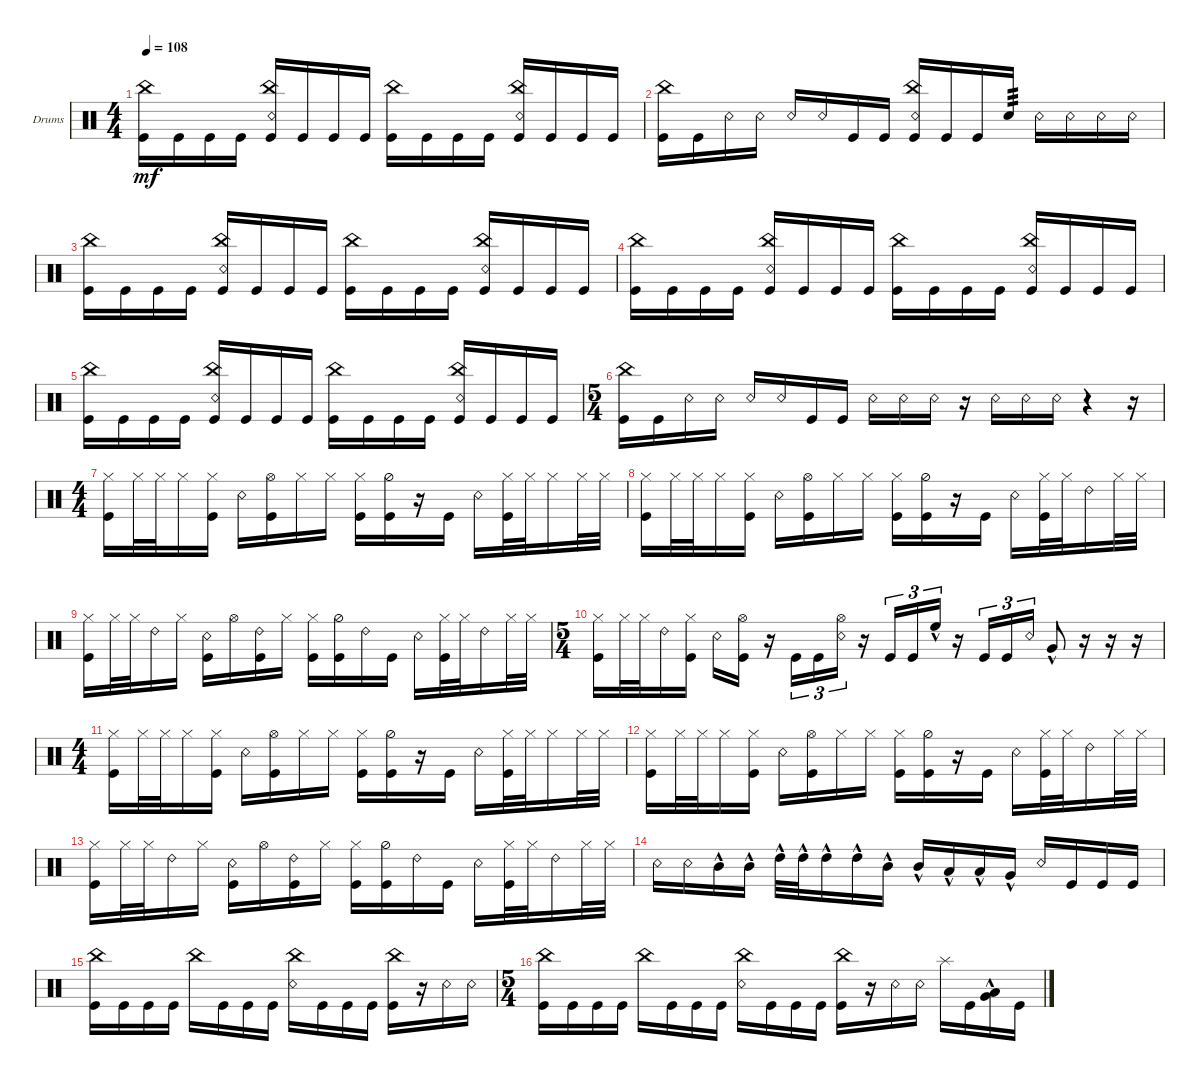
\defaultSystemsLayout 4
\bracketExtendMode groupsimilarinstruments
\firstSystemTrackNameOrientation horizontal
\otherSystemsTrackNameOrientation horizontal
\track ("Drumkit" "Drums") {instrument percussion}
\staff {score}
\articulation defaults
\ts (4 4)
\tempo 108
\clef neutral
\ks c
("Kick (hit)" "China (hit)").16{dy mf} "Kick (hit)".16 "Kick (hit)".16 "Kick (hit)".16 ("Kick (hit)" "China (hit)" "Snare (rim shot)").16 "Kick (hit)".16 "Kick (hit)".16 "Kick (hit)".16 ("Kick (hit)" "China (hit)").16 "Kick (hit)".16 "Kick (hit)".16 "Kick (hit)".16 ("Kick (hit)" "China (hit)" "Snare (rim shot)").16 "Kick (hit)".16 "Kick (hit)".16 "Kick (hit)".16 |
("Kick (hit)" "China (hit)").16 "Kick (hit)".16 "Snare (rim shot)".16 "Snare (rim shot)".16 "Snare (rim shot)".16 "Snare (rim shot)".16 "Kick (hit)".16 "Kick (hit)".16 ("Kick (hit)" "Snare (rim shot)" "China (hit)").16 "Kick (hit)".16 "Kick (hit)".16 "Snare (hit) 2".16{tp 3} "Snare (rim shot)".16 "Snare (rim shot)".16 "Snare (rim shot)".16 "Snare (rim shot)".16 |
("Kick (hit)" "China (hit)").16 "Kick (hit)".16 "Kick (hit)".16 "Kick (hit)".16 ("Kick (hit)" "China (hit)" "Snare (rim shot)").16 "Kick (hit)".16 "Kick (hit)".16 "Kick (hit)".16 ("Kick (hit)" "China (hit)").16 "Kick (hit)".16 "Kick (hit)".16 "Kick (hit)".16 ("Kick (hit)" "China (hit)" "Snare (rim shot)").16 "Kick (hit)".16 "Kick (hit)".16 "Kick (hit)".16 |
("Kick (hit)" "China (hit)").16 "Kick (hit)".16 "Kick (hit)".16 "Kick (hit)".16 ("Snare (rim shot)" "China (hit)" "Kick (hit)").16 "Kick (hit)".16 "Kick (hit)".16 "Kick (hit)".16 ("Kick (hit)" "China (hit)").16 "Kick (hit)".16 "Kick (hit)".16 "Kick (hit)".16 ("Snare (rim shot)" "Kick (hit)" "China (hit)").16 "Kick (hit)".16 "Kick (hit)".16 "Kick (hit)".16 |
("Kick (hit)" "China (hit)").16 "Kick (hit)".16 "Kick (hit)".16 "Kick (hit)".16 ("Kick (hit)" "China (hit)" "Snare (rim shot)").16 "Kick (hit)".16 "Kick (hit)".16 "Kick (hit)".16 ("Kick (hit)" "China (hit)").16 "Kick (hit)".16 "Kick (hit)".16 "Kick (hit)".16 ("Kick (hit)" "China (hit)" "Snare (rim shot)").16 "Kick (hit)".16 "Kick (hit)".16 "Kick (hit)".16 |
\ts (5 4)
("Kick (hit)" "China (hit)").16 "Kick (hit)".16 "Snare (rim shot)".16 "Snare (rim shot)".16 "Snare (rim shot)".16 "Snare (rim shot)".16 "Kick (hit)".16 "Kick (hit)".16 "Snare (rim shot)".16 "Snare (rim shot)".16 "Snare (rim shot)".16 r.16 "Snare (rim shot)".16 "Snare (rim shot)".16 "Snare (rim shot)".16 r.4 r.16 |
\ts (4 4)
("Hi-Hat (closed)" "Kick (hit)").16 "Hi-Hat (closed)".32 "Hi-Hat (closed)".32 "Hi-Hat (closed)".16 ("Kick (hit)" "Hi-Hat (closed)").16 "Snare (rim shot)".16 ("Hi-Hat (open)" "Kick (hit)").16 "Hi-Hat (closed)".16 "Hi-Hat (closed)".16 ("Hi-Hat (closed)" "Kick (hit)").16 ("Kick (hit)" "Hi-Hat (half)").16 r.16 "Kick (hit)".16 "Snare (rim shot)".16 ("Kick (hit)" "Hi-Hat (closed)").32 "Hi-Hat (closed)".32 "Hi-Hat (closed)".16 "Hi-Hat (closed)".32 "Hi-Hat (closed)".32 |
("Hi-Hat (closed)" "Kick (hit)").16 "Hi-Hat (closed)".32 "Hi-Hat (closed)".32 "Hi-Hat (closed)".16 ("Kick (hit)" "Hi-Hat (closed)").16 "Snare (rim shot)".16 ("Hi-Hat (open)" "Kick (hit)").16 "Hi-Hat (closed)".16 "Hi-Hat (closed)".16 ("Hi-Hat (closed)" "Kick (hit)").16 ("Kick (hit)" "Hi-Hat (half)").16 r.16 "Kick (hit)".16 "Snare (rim shot)".16 ("Kick (hit)" "Hi-Hat (closed)").32 "Hi-Hat (closed)".32 "Ride (bell) 2".16 "Hi-Hat (closed)".32 "Hi-Hat (closed)".32 |
("Hi-Hat (closed)" "Kick (hit)").16 "Hi-Hat (closed)".32 "Hi-Hat (closed)".32 "Ride (bell) 2".16 "Hi-Hat (closed)".16 ("Snare (rim shot)" "Kick (hit)").16 "Hi-Hat (open)".16 ("Ride (bell) 2" "Kick (hit)").16 "Hi-Hat (closed)".16 ("Hi-Hat (closed)" "Kick (hit)").16 ("Kick (hit)" "Hi-Hat (half)").16 "Ride (bell) 2".16 "Kick (hit)".16 "Snare (rim shot)".16 ("Kick (hit)" "Hi-Hat (closed)").32 "Hi-Hat (closed)".32 "Ride (bell) 2".16 "Hi-Hat (closed)".32 "Hi-Hat (closed)".32 |
\ts (5 4)
("Hi-Hat (closed)" "Kick (hit)").16 "Hi-Hat (closed)".32 "Hi-Hat (closed)".32 "Ride (bell) 2".16 ("Kick (hit)" "Hi-Hat (closed)").16 "Snare (rim shot)".16 ("Hi-Hat (open)" "Kick (hit)").16 r.16 "Kick (hit)".16{tu (3 2)} "Kick (hit)".16{tu (3 2)} ("Snare (rim shot)" "Hi-Hat (open)").16{tu (3 2)} r.16 "Kick (hit)".16{tu (3 2)} "Kick (hit)".16{tu (3 2)} "High Floor Tom (hit)"{hac}.16{tu (3 2)} r.16 "Kick (hit)".16{tu (3 2)} "Kick (hit)".16{tu (3 2)} "Snare (rim shot)".16{tu (3 2)} "Very Low Tom (hit)"{hac}.8 r.16 r.16 r.16 |
\ts (4 4)
("Hi-Hat (closed)" "Kick (hit)").16 "Hi-Hat (closed)".32 "Hi-Hat (closed)".32 "Hi-Hat (closed)".16 ("Kick (hit)" "Hi-Hat (closed)").16 "Snare (rim shot)".16 ("Hi-Hat (open)" "Kick (hit)").16 "Hi-Hat (closed)".16 "Hi-Hat (closed)".16 ("Hi-Hat (closed)" "Kick (hit)").16 ("Kick (hit)" "Hi-Hat (half)").16 r.16 "Kick (hit)".16 "Snare (rim shot)".16 ("Kick (hit)" "Hi-Hat (closed)").32 "Hi-Hat (closed)".32 "Hi-Hat (closed)".16 "Hi-Hat (closed)".32 "Hi-Hat (closed)".32 |
("Hi-Hat (closed)" "Kick (hit)").16 "Hi-Hat (closed)".32 "Hi-Hat (closed)".32 "Hi-Hat (closed)".16 ("Kick (hit)" "Hi-Hat (closed)").16 "Snare (rim shot)".16 ("Hi-Hat (open)" "Kick (hit)").16 "Hi-Hat (closed)".16 "Hi-Hat (closed)".16 ("Hi-Hat (closed)" "Kick (hit)").16 ("Kick (hit)" "Hi-Hat (half)").16 r.16 "Kick (hit)".16 "Snare (rim shot)".16 ("Kick (hit)" "Hi-Hat (closed)").32 "Hi-Hat (closed)".32 "Ride (bell) 2".16 "Hi-Hat (closed)".32 "Hi-Hat (closed)".32 |
("Hi-Hat (closed)" "Kick (hit)").16 "Hi-Hat (closed)".32 "Hi-Hat (closed)".32 "Ride (bell) 2".16 "Hi-Hat (closed)".16 ("Snare (rim shot)" "Kick (hit)").16 "Hi-Hat (open)".16 ("Ride (bell) 2" "Kick (hit)").16 "Hi-Hat (closed)".16 ("Hi-Hat (closed)" "Kick (hit)").16 ("Kick (hit)" "Hi-Hat (half)").16 "Ride (bell) 2".16 "Kick (hit)".16 "Snare (rim shot)".16 ("Kick (hit)" "Hi-Hat (closed)").32 "Hi-Hat (closed)".32 "Ride (bell) 2".16 "Hi-Hat (closed)".32 "Hi-Hat (closed)".32 |
"Snare (rim shot)".16 "Snare (rim shot)".16 "Mid Tom (hit)"{hac}.16 "Mid Tom (hit)"{hac}.16 "High Tom (hit)"{hac}.32 "High Tom (hit)"{hac}.32 "High Tom (hit)"{hac}.16 "High Tom (hit)"{hac}.16 "Mid Tom (hit)"{hac}.16 "Mid Tom (hit)"{hac}.16 "Low Tom (hit)"{hac}.16 "Low Tom (hit)"{hac}.16 "Very Low Tom (hit)"{hac}.16 "Snare (rim shot)".16 "Kick (hit)".16 "Kick (hit)".16 "Kick (hit)".16 |
("Kick (hit)" "China (hit)").16 "Kick (hit)".16 "Kick (hit)".16 "Kick (hit)".16 "China (hit)".16 "Kick (hit)".16 "Kick (hit)".16 "Kick (hit)".16 ("Snare (rim shot)" "China (hit)").16 "Kick (hit)".16 "Kick (hit)".16 "Kick (hit)".16 ("Kick (hit)" "China (hit)").16 r.16 "Snare (rim shot)".16 "Snare (rim shot)".16 |
\ts (5 4)
("Kick (hit)" "China (hit)").16 "Kick (hit)".16 "Kick (hit)".16 "Kick (hit)".16 "China (hit)".16 "Kick (hit)".16 "Kick (hit)".16 "Kick (hit)".16 ("Snare (rim shot)" "China (hit)").16 "Kick (hit)".16 "Kick (hit)".16 "Kick (hit)".16 ("Kick (hit)" "China (hit)").16 r.16 "Snare (rim shot)".16 "Snare (rim shot)".16 "Splash (hit)".16 "Kick (hit)".16 ("Very Low Tom (hit)"{hac} "Low Tom (hit)"{hac}).16 "Kick (hit)".16
